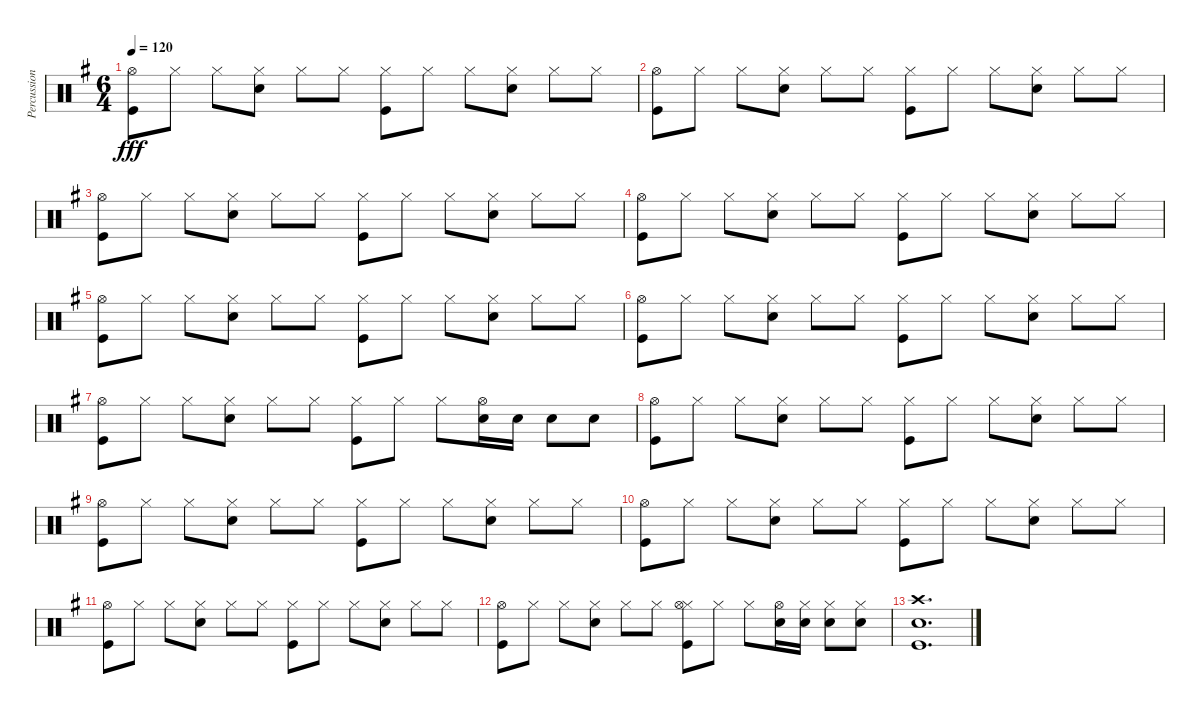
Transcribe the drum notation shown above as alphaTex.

\track ("Percussion" "Percussion") {instrument percussion}
\staff {score}
\articulation defaults
\ts (6 4)
\tempo 120
\clef neutral
\ks g
("Kick (hit)" "Hi-Hat (open)").8{dy fff} "Hi-Hat (closed)".8 "Hi-Hat (closed)".8 ("Hi-Hat (closed)" "Snare (hit) 2").8 "Hi-Hat (closed)".8 "Hi-Hat (closed)".8 ("Hi-Hat (closed)" "Kick (hit)").8 "Hi-Hat (closed)".8 "Hi-Hat (closed)".8 ("Hi-Hat (closed)" "Snare (hit) 2").8 "Hi-Hat (closed)".8 "Hi-Hat (closed)".8 |
("Kick (hit)" "Hi-Hat (open)").8 "Hi-Hat (closed)".8 "Hi-Hat (closed)".8 ("Hi-Hat (closed)" "Snare (hit) 2").8 "Hi-Hat (closed)".8 "Hi-Hat (closed)".8 ("Hi-Hat (closed)" "Kick (hit)").8 "Hi-Hat (closed)".8 "Hi-Hat (closed)".8 ("Hi-Hat (closed)" "Snare (hit) 2").8 "Hi-Hat (closed)".8 "Hi-Hat (closed)".8 |
("Kick (hit)" "Hi-Hat (open)").8 "Hi-Hat (closed)".8 "Hi-Hat (closed)".8 ("Hi-Hat (closed)" "Snare (hit) 2").8 "Hi-Hat (closed)".8 "Hi-Hat (closed)".8 ("Hi-Hat (closed)" "Kick (hit)").8 "Hi-Hat (closed)".8 "Hi-Hat (closed)".8 ("Hi-Hat (closed)" "Snare (hit) 2").8 "Hi-Hat (closed)".8 "Hi-Hat (closed)".8 |
("Kick (hit)" "Hi-Hat (open)").8 "Hi-Hat (closed)".8 "Hi-Hat (closed)".8 ("Hi-Hat (closed)" "Snare (hit) 2").8 "Hi-Hat (closed)".8 "Hi-Hat (closed)".8 ("Hi-Hat (closed)" "Kick (hit)").8 "Hi-Hat (closed)".8 "Hi-Hat (closed)".8 ("Hi-Hat (closed)" "Snare (hit) 2").8 "Hi-Hat (closed)".8 "Hi-Hat (closed)".8 |
("Kick (hit)" "Hi-Hat (open)").8 "Hi-Hat (closed)".8 "Hi-Hat (closed)".8 ("Hi-Hat (closed)" "Snare (hit) 2").8 "Hi-Hat (closed)".8 "Hi-Hat (closed)".8 ("Hi-Hat (closed)" "Kick (hit)").8 "Hi-Hat (closed)".8 "Hi-Hat (closed)".8 ("Hi-Hat (closed)" "Snare (hit) 2").8 "Hi-Hat (closed)".8 "Hi-Hat (closed)".8 |
("Kick (hit)" "Hi-Hat (open)").8 "Hi-Hat (closed)".8 "Hi-Hat (closed)".8 ("Hi-Hat (closed)" "Snare (hit) 2").8 "Hi-Hat (closed)".8 "Hi-Hat (closed)".8 ("Hi-Hat (closed)" "Kick (hit)").8 "Hi-Hat (closed)".8 "Hi-Hat (closed)".8 ("Hi-Hat (closed)" "Snare (hit) 2").8 "Hi-Hat (closed)".8 "Hi-Hat (closed)".8 |
("Kick (hit)" "Hi-Hat (open)").8 "Hi-Hat (closed)".8 "Hi-Hat (closed)".8 ("Hi-Hat (closed)" "Snare (hit) 2").8 "Hi-Hat (closed)".8 "Hi-Hat (closed)".8 ("Hi-Hat (closed)" "Kick (hit)").8 "Hi-Hat (closed)".8 "Hi-Hat (closed)".8 ("Snare (hit) 2" "Hi-Hat (open)").16 "Snare (hit) 2".16 "Snare (hit) 2".8 "Snare (hit) 2".8 |
("Kick (hit)" "Hi-Hat (open)").8 "Hi-Hat (closed)".8 "Hi-Hat (closed)".8 ("Hi-Hat (closed)" "Snare (hit) 2").8 "Hi-Hat (closed)".8 "Hi-Hat (closed)".8 ("Hi-Hat (closed)" "Kick (hit)").8 "Hi-Hat (closed)".8 "Hi-Hat (closed)".8 ("Hi-Hat (closed)" "Snare (hit) 2").8 "Hi-Hat (closed)".8 "Hi-Hat (closed)".8 |
("Kick (hit)" "Hi-Hat (open)").8 "Hi-Hat (closed)".8 "Hi-Hat (closed)".8 ("Hi-Hat (closed)" "Snare (hit) 2").8 "Hi-Hat (closed)".8 "Hi-Hat (closed)".8 ("Hi-Hat (closed)" "Kick (hit)").8 "Hi-Hat (closed)".8 "Hi-Hat (closed)".8 ("Hi-Hat (closed)" "Snare (hit) 2").8 "Hi-Hat (closed)".8 "Hi-Hat (closed)".8 |
("Kick (hit)" "Hi-Hat (open)").8 "Hi-Hat (closed)".8 "Hi-Hat (closed)".8 ("Hi-Hat (closed)" "Snare (hit) 2").8 "Hi-Hat (closed)".8 "Hi-Hat (closed)".8 ("Hi-Hat (closed)" "Kick (hit)").8 "Hi-Hat (closed)".8 "Hi-Hat (closed)".8 ("Hi-Hat (closed)" "Snare (hit) 2").8 "Hi-Hat (closed)".8 "Hi-Hat (closed)".8 |
("Kick (hit)" "Hi-Hat (open)").8 "Hi-Hat (closed)".8 "Hi-Hat (closed)".8 ("Hi-Hat (closed)" "Snare (hit) 2").8 "Hi-Hat (closed)".8 "Hi-Hat (closed)".8 ("Hi-Hat (closed)" "Kick (hit)").8 "Hi-Hat (closed)".8 "Hi-Hat (closed)".8 ("Hi-Hat (closed)" "Snare (hit) 2").8 "Hi-Hat (closed)".8 "Hi-Hat (closed)".8 |
("Kick (hit)" "Hi-Hat (open)").8 "Hi-Hat (closed)".8 "Hi-Hat (closed)".8 ("Hi-Hat (closed)" "Snare (hit) 2").8 "Hi-Hat (closed)".8 "Hi-Hat (closed)".8 ("Hi-Hat (closed)" "Kick (hit)" "Hi-Hat (open)").8 "Hi-Hat (closed)".8 "Hi-Hat (closed)".8 ("Hi-Hat (open)" "Snare (hit) 2").16 ("Snare (hit) 2" "Hi-Hat (closed)").16 ("Snare (hit) 2" "Hi-Hat (closed)").8 ("Snare (hit) 2" "Hi-Hat (closed)").8 |
("Kick (hit)" "Crash high (hit)" "Snare (hit) 2").1{d}
